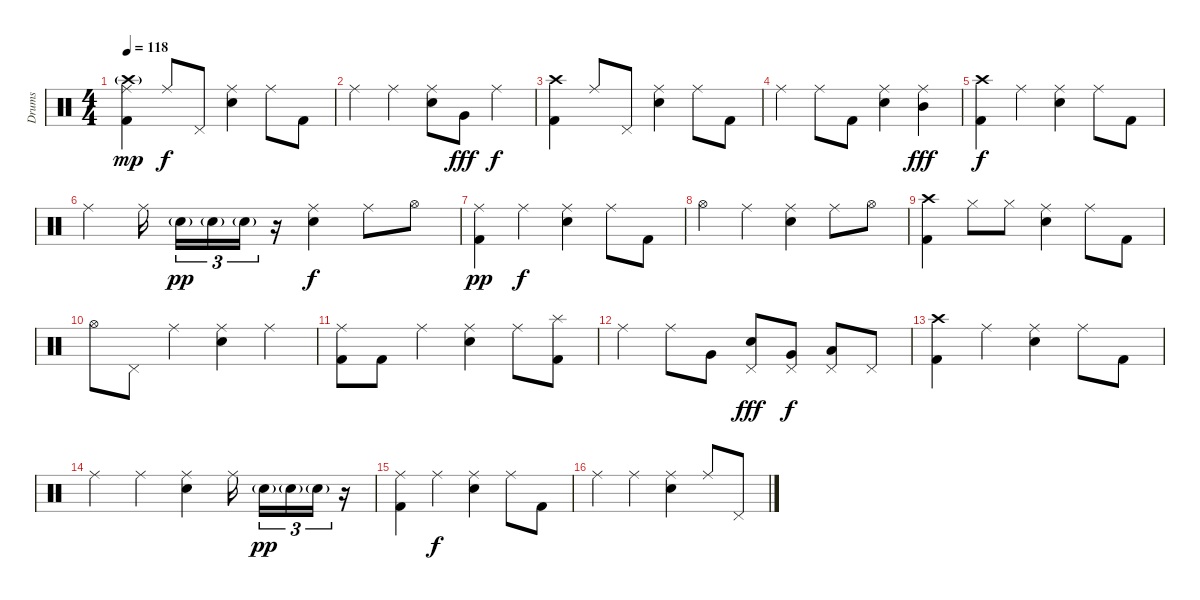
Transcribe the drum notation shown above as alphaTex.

\track ("Drums" "Drums") {instrument percussion}
\staff {score}
\articulation defaults
\ts (4 4)
\tempo 118
\clef neutral
\ks c
("Crash high (hit)"{g} "Ride (middle)" "Kick (hit) 2").4{dy mp} "Ride (middle)".8{dy f} "Pedal Hi-Hat (hit)".8 ("Ride (middle)" "Electric Snare (hit)").4 "Ride (middle)".8 "Kick (hit) 2".8 |
"Ride (middle)".4 "Ride (middle)".4 ("Ride (middle)" "Electric Snare (hit)").8 "Very Low Tom (hit)".8{dy fff} "Ride (middle)".4{dy f} |
("Crash high (hit)" "Kick (hit) 2").4 "Ride (middle)".8 "Pedal Hi-Hat (hit)".8 ("Ride (middle)" "Electric Snare (hit)").4 "Ride (middle)".8 "Kick (hit) 2".8 |
"Ride (middle)".4 "Ride (middle)".8 "Kick (hit) 2".8 ("Ride (middle)" "Electric Snare (hit)").4 ("Ride (middle)" "Mid Tom (hit)").4{dy fff} |
("Crash high (hit)" "Kick (hit) 2").4{dy f} "Ride (middle)".4 ("Ride (middle)" "Electric Snare (hit)").4 "Ride (middle)".8 "Kick (hit) 2".8 |
"Ride (middle)".4 "Ride (middle)".16{beam splitsecondary} "Electric Snare (hit)"{g}.16{tu (3 2) dy pp} "Electric Snare (hit)"{g}.16{tu (3 2)} "Electric Snare (hit)"{g}.16{tu (3 2)} r.16 ("Ride (middle)" "Electric Snare (hit)").4{dy f} "Ride (middle)".8 "Hi-Hat (open)".8 |
("Ride (middle)" "Kick (hit) 2").4{dy pp} "Ride (middle)".4{dy f} ("Ride (middle)" "Electric Snare (hit)").4 "Ride (middle)".8 "Kick (hit) 2".8 |
"Hi-Hat (open)".4 "Ride (middle)".4 ("Ride (middle)" "Electric Snare (hit)").4 "Ride (middle)".8 "Hi-Hat (open)".8 |
("Crash high (hit)" "Kick (hit) 2").4 "Hi-Hat (closed)".8 "Hi-Hat (closed)".8 ("Ride (middle)" "Electric Snare (hit)").4 "Ride (middle)".8 "Kick (hit) 2".8 |
"Hi-Hat (open)".8 "Pedal Hi-Hat (hit)".8 "Ride (middle)".4 ("Ride (middle)" "Electric Snare (hit)").4 "Ride (middle)".4 |
("Ride (middle)" "Kick (hit) 2").8 "Kick (hit) 2".8 "Ride (middle)".4 ("Ride (middle)" "Electric Snare (hit)").4 "Ride (middle)".8 ("Splash (hit)" "Kick (hit) 2").8 |
"Ride (middle)".4 "Ride (middle)".8 "Very Low Tom (hit)".8 ("Pedal Hi-Hat (hit)" "Electric Snare (hit)").8{dy fff} ("Pedal Hi-Hat (hit)" "Very Low Tom (hit)").8{dy f} ("Pedal Hi-Hat (hit)" "Low Tom (hit)").8 "Pedal Hi-Hat (hit)".8 |
("Crash high (hit)" "Kick (hit) 2").4 "Ride (middle)".4 ("Ride (middle)" "Electric Snare (hit)").4 "Ride (middle)".8 "Kick (hit) 2".8 |
"Ride (middle)".4 "Ride (middle)".4 ("Ride (middle)" "Electric Snare (hit)").4 "Ride (middle)".16{beam splitsecondary} "Electric Snare (hit)"{g}.16{tu (3 2) dy pp} "Electric Snare (hit)"{g}.16{tu (3 2)} "Electric Snare (hit)"{g}.16{tu (3 2)} r.16 |
("Ride (middle)" "Kick (hit) 2").4 "Ride (middle)".4{dy f} ("Ride (middle)" "Electric Snare (hit)").4 "Ride (middle)".8 "Kick (hit) 2".8 |
"Ride (middle)".4 "Ride (middle)".4 ("Ride (middle)" "Electric Snare (hit)").4 "Ride (middle)".8 "Pedal Hi-Hat (hit)".8
